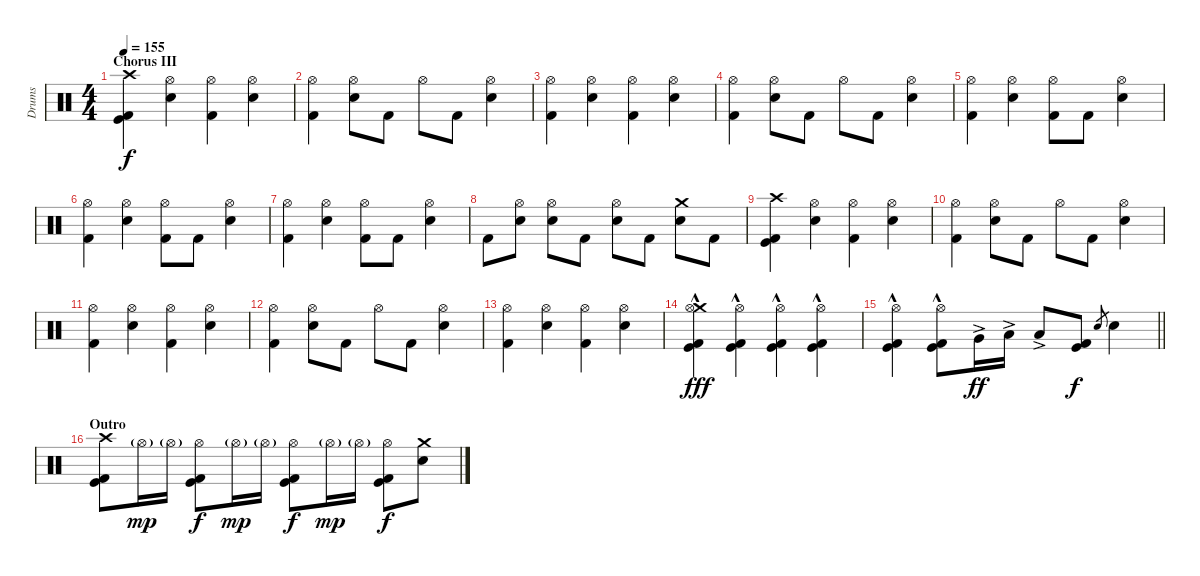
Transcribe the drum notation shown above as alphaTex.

\track ("Drums" "Drums") {instrument percussion}
\staff {score}
\articulation defaults
\ts (4 4)
\section ("" "Chorus III")
\tempo 155
\clef neutral
\ks c
("Crash high (hit)" "Kick (hit) 2" "Kick (hit)").4{dy f} ("Hi-Hat (open)" "Electric Snare (hit)").4 ("Hi-Hat (open)" "Kick (hit) 2").4 ("Hi-Hat (open)" "Electric Snare (hit)").4 |
("Hi-Hat (open)" "Kick (hit) 2").4 ("Hi-Hat (open)" "Electric Snare (hit)").8 "Kick (hit) 2".8 "Hi-Hat (open)".8 "Kick (hit) 2".8 ("Hi-Hat (open)" "Electric Snare (hit)").4 |
("Hi-Hat (open)" "Kick (hit) 2").4 ("Hi-Hat (open)" "Electric Snare (hit)").4 ("Hi-Hat (open)" "Kick (hit) 2").4 ("Hi-Hat (open)" "Electric Snare (hit)").4 |
("Hi-Hat (open)" "Kick (hit) 2").4 ("Hi-Hat (open)" "Electric Snare (hit)").8 "Kick (hit) 2".8 "Hi-Hat (open)".8 "Kick (hit) 2".8 ("Hi-Hat (open)" "Electric Snare (hit)").4 |
("Hi-Hat (open)" "Kick (hit) 2").4 ("Hi-Hat (open)" "Electric Snare (hit)").4 ("Hi-Hat (open)" "Kick (hit) 2").8 "Kick (hit) 2".8 ("Hi-Hat (open)" "Electric Snare (hit)").4 |
("Hi-Hat (open)" "Kick (hit) 2").4 ("Hi-Hat (open)" "Electric Snare (hit)").4 ("Hi-Hat (open)" "Kick (hit) 2").8 "Kick (hit) 2".8 ("Hi-Hat (open)" "Electric Snare (hit)").4 |
("Hi-Hat (open)" "Kick (hit) 2").4 ("Hi-Hat (open)" "Electric Snare (hit)").4 ("Hi-Hat (open)" "Kick (hit) 2").8 "Kick (hit) 2".8 ("Hi-Hat (open)" "Electric Snare (hit)").4 |
"Kick (hit) 2".8 ("Hi-Hat (open)" "Electric Snare (hit)").8 ("Hi-Hat (open)" "Electric Snare (hit)").8 "Kick (hit) 2".8 ("Hi-Hat (open)" "Electric Snare (hit)").8 "Kick (hit) 2".8 ("Crash medium (hit)" "Electric Snare (hit)").8 "Kick (hit) 2".8 |
("Crash high (hit)" "Kick (hit) 2" "Kick (hit)").4 ("Hi-Hat (open)" "Electric Snare (hit)").4 ("Hi-Hat (open)" "Kick (hit) 2").4 ("Hi-Hat (open)" "Electric Snare (hit)").4 |
("Hi-Hat (open)" "Kick (hit) 2").4 ("Hi-Hat (open)" "Electric Snare (hit)").8 "Kick (hit) 2".8 "Hi-Hat (open)".8 "Kick (hit) 2".8 ("Hi-Hat (open)" "Electric Snare (hit)").4 |
("Hi-Hat (open)" "Kick (hit) 2").4 ("Hi-Hat (open)" "Electric Snare (hit)").4 ("Hi-Hat (open)" "Kick (hit) 2").4 ("Hi-Hat (open)" "Electric Snare (hit)").4 |
("Hi-Hat (open)" "Kick (hit) 2").4 ("Hi-Hat (open)" "Electric Snare (hit)").8 "Kick (hit) 2".8 "Hi-Hat (open)".8 "Kick (hit) 2".8 ("Hi-Hat (open)" "Electric Snare (hit)").4 |
("Hi-Hat (open)" "Kick (hit) 2").4 ("Hi-Hat (open)" "Electric Snare (hit)").4 ("Hi-Hat (open)" "Kick (hit) 2").4 ("Hi-Hat (open)" "Electric Snare (hit)").4 |
("Crash medium (hit)" "Hi-Hat (open)"{hac} "Kick (hit) 2" "Kick (hit)").4{dy fff} ("Hi-Hat (open)"{hac} "Kick (hit) 2" "Kick (hit)").4 ("Hi-Hat (open)"{hac} "Kick (hit) 2" "Kick (hit)").4 ("Hi-Hat (open)"{hac} "Kick (hit) 2" "Kick (hit)").4 |
\barLineRight lightlight
("Hi-Hat (open)"{hac} "Kick (hit)" "Kick (hit) 2").4 ("Hi-Hat (open)"{hac} "Kick (hit)" "Kick (hit) 2").8 "Very Low Tom (hit)"{ac}.16{dy ff} "Low Tom (hit)"{ac}.16 "Low Floor Tom (hit)"{ac}.8 ("Kick (hit) 2" "Kick (hit)").8{dy f} "Electric Snare (hit)".8{gr} "Electric Snare (hit)".4 |
\section ("" "Outro")
("Crash high (hit)" "Kick (hit) 2" "Kick (hit)").8 "Hi-Hat (open)"{g}.16{dy mp} "Hi-Hat (open)"{g}.16 ("Hi-Hat (open)" "Kick (hit) 2" "Kick (hit)").8{dy f} "Hi-Hat (open)"{g}.16{dy mp} "Hi-Hat (open)"{g}.16 ("Hi-Hat (open)" "Kick (hit) 2" "Kick (hit)").8{dy f} "Hi-Hat (open)"{g}.16{dy mp} "Hi-Hat (open)"{g}.16 ("Hi-Hat (open)" "Kick (hit) 2" "Kick (hit)").8{dy f} ("Electric Snare (hit)" "Crash medium (hit)").8
